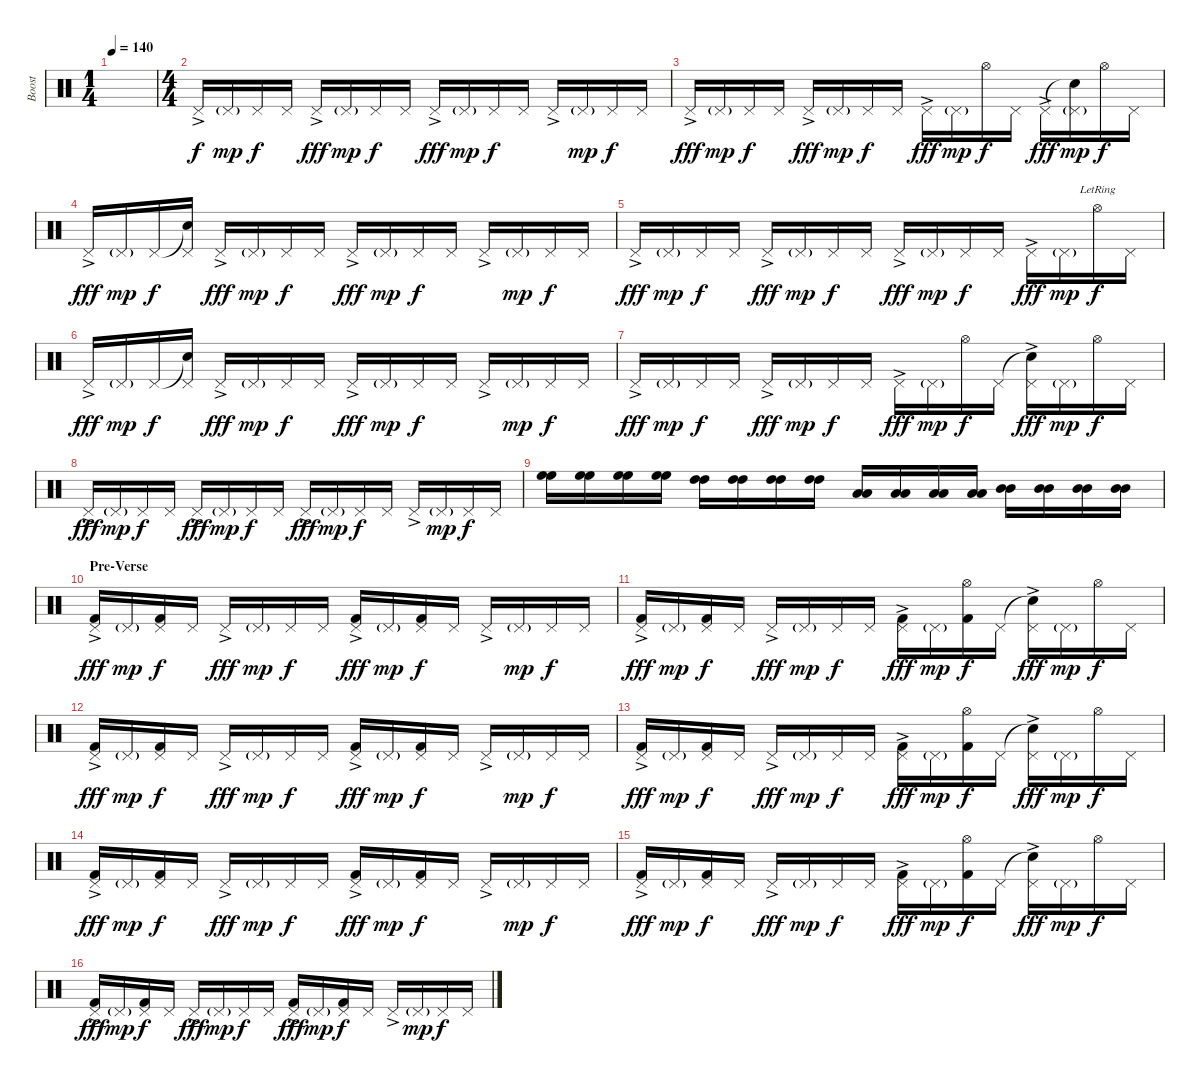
\track ("Boost" "Boost") {instrument percussion}
\staff {score}
\articulation defaults
\ts (1 4)
\tempo 140
\clef neutral
\ks c
|
\ts (4 4)
"Pedal Hi-Hat (hit)"{ac}.16 "Pedal Hi-Hat (hit)"{g}.16{dy mp} "Pedal Hi-Hat (hit)".16{dy f} "Pedal Hi-Hat (hit)".16 "Pedal Hi-Hat (hit)"{ac}.16{dy fff} "Pedal Hi-Hat (hit)"{g}.16{dy mp} "Pedal Hi-Hat (hit)".16{dy f} "Pedal Hi-Hat (hit)".16 "Pedal Hi-Hat (hit)"{ac}.16{dy fff} "Pedal Hi-Hat (hit)"{g}.16{dy mp} "Pedal Hi-Hat (hit)".16{dy f} "Pedal Hi-Hat (hit)".16 "Pedal Hi-Hat (hit)"{ac}.16 "Pedal Hi-Hat (hit)"{g}.16{dy mp} "Pedal Hi-Hat (hit)".16{dy f} "Pedal Hi-Hat (hit)".16 |
"Pedal Hi-Hat (hit)"{ac}.16{dy fff} "Pedal Hi-Hat (hit)"{g}.16{dy mp} "Pedal Hi-Hat (hit)".16{dy f} "Pedal Hi-Hat (hit)".16 "Pedal Hi-Hat (hit)"{ac}.16{dy fff} "Pedal Hi-Hat (hit)"{g}.16{dy mp} "Pedal Hi-Hat (hit)".16{dy f} "Pedal Hi-Hat (hit)".16 "Pedal Hi-Hat (hit)"{ac}.16{dy fff} "Pedal Hi-Hat (hit)"{g}.16{dy mp} "Hi-Hat (open)".16{dy f} "Pedal Hi-Hat (hit)".16 "Pedal Hi-Hat (hit)"{ac}.16{dy fff} ("Snare (hit)"{t} "Pedal Hi-Hat (hit)"{g}).16{dy mp} "Hi-Hat (open)".16{dy f} "Pedal Hi-Hat (hit)".16 |
"Pedal Hi-Hat (hit)"{ac}.16{dy fff} "Pedal Hi-Hat (hit)"{g}.16{dy mp} "Pedal Hi-Hat (hit)".16{dy f} ("Snare (hit)"{t} "Pedal Hi-Hat (hit)").16 "Pedal Hi-Hat (hit)"{ac}.16{dy fff} "Pedal Hi-Hat (hit)"{g}.16{dy mp} "Pedal Hi-Hat (hit)".16{dy f} "Pedal Hi-Hat (hit)".16 "Pedal Hi-Hat (hit)"{ac}.16{dy fff} "Pedal Hi-Hat (hit)"{g}.16{dy mp} "Pedal Hi-Hat (hit)".16{dy f} "Pedal Hi-Hat (hit)".16 "Pedal Hi-Hat (hit)"{ac}.16 "Pedal Hi-Hat (hit)"{g}.16{dy mp} "Pedal Hi-Hat (hit)".16{dy f} "Pedal Hi-Hat (hit)".16 |
"Pedal Hi-Hat (hit)"{ac}.16{dy fff} "Pedal Hi-Hat (hit)"{g}.16{dy mp} "Pedal Hi-Hat (hit)".16{dy f} "Pedal Hi-Hat (hit)".16 "Pedal Hi-Hat (hit)"{ac}.16{dy fff} "Pedal Hi-Hat (hit)"{g}.16{dy mp} "Pedal Hi-Hat (hit)".16{dy f} "Pedal Hi-Hat (hit)".16 "Pedal Hi-Hat (hit)"{ac}.16{dy fff} "Pedal Hi-Hat (hit)"{g}.16{dy mp} "Pedal Hi-Hat (hit)".16{dy f} "Pedal Hi-Hat (hit)".16 "Pedal Hi-Hat (hit)"{ac}.16{dy fff} "Pedal Hi-Hat (hit)"{g}.16{dy mp} "Hi-Hat (open)"{lr}.16{dy f} "Pedal Hi-Hat (hit)".16 |
"Pedal Hi-Hat (hit)"{ac}.16{dy fff} "Pedal Hi-Hat (hit)"{g}.16{dy mp} "Pedal Hi-Hat (hit)".16{dy f} ("Snare (hit)"{t} "Pedal Hi-Hat (hit)").16 "Pedal Hi-Hat (hit)"{ac}.16{dy fff} "Pedal Hi-Hat (hit)"{g}.16{dy mp} "Pedal Hi-Hat (hit)".16{dy f} "Pedal Hi-Hat (hit)".16 "Pedal Hi-Hat (hit)"{ac}.16{dy fff} "Pedal Hi-Hat (hit)"{g}.16{dy mp} "Pedal Hi-Hat (hit)".16{dy f} "Pedal Hi-Hat (hit)".16 "Pedal Hi-Hat (hit)"{ac}.16 "Pedal Hi-Hat (hit)"{g}.16{dy mp} "Pedal Hi-Hat (hit)".16{dy f} "Pedal Hi-Hat (hit)".16 |
"Pedal Hi-Hat (hit)"{ac}.16{dy fff} "Pedal Hi-Hat (hit)"{g}.16{dy mp} "Pedal Hi-Hat (hit)".16{dy f} "Pedal Hi-Hat (hit)".16 "Pedal Hi-Hat (hit)"{ac}.16{dy fff} "Pedal Hi-Hat (hit)"{g}.16{dy mp} "Pedal Hi-Hat (hit)".16{dy f} "Pedal Hi-Hat (hit)".16 "Pedal Hi-Hat (hit)"{ac}.16{dy fff} "Pedal Hi-Hat (hit)"{g}.16{dy mp} "Hi-Hat (open)".16{dy f} "Pedal Hi-Hat (hit)".16 ("Snare (hit)"{t} "Pedal Hi-Hat (hit)"{ac}).16{dy fff} "Pedal Hi-Hat (hit)"{g}.16{dy mp} "Hi-Hat (open)".16{dy f} "Pedal Hi-Hat (hit)".16 |
"Pedal Hi-Hat (hit)"{ac}.16{dy fff} "Pedal Hi-Hat (hit)"{g}.16{dy mp} "Pedal Hi-Hat (hit)".16{dy f} "Pedal Hi-Hat (hit)".16 "Pedal Hi-Hat (hit)"{ac}.16{dy fff} "Pedal Hi-Hat (hit)"{g}.16{dy mp} "Pedal Hi-Hat (hit)".16{dy f} "Pedal Hi-Hat (hit)".16 "Pedal Hi-Hat (hit)"{ac}.16{dy fff} "Pedal Hi-Hat (hit)"{g}.16{dy mp} "Pedal Hi-Hat (hit)".16{dy f} "Pedal Hi-Hat (hit)".16 "Pedal Hi-Hat (hit)"{ac}.16 "Pedal Hi-Hat (hit)"{g}.16{dy mp} "Pedal Hi-Hat (hit)".16{dy f} "Pedal Hi-Hat (hit)".16 |
("High Floor Tom (hit)" "High Floor Tom (hit)").16 ("High Floor Tom (hit)" "High Floor Tom (hit)").16 ("High Floor Tom (hit)" "High Floor Tom (hit)").16 ("High Floor Tom (hit)" "High Floor Tom (hit)").16 ("High Tom (hit)" "High Tom (hit)").16 ("High Tom (hit)" "High Tom (hit)").16 ("High Tom (hit)" "High Tom (hit)").16 ("High Tom (hit)" "High Tom (hit)").16 ("Low Tom (hit)" "Low Tom (hit)").16 ("Low Tom (hit)" "Low Tom (hit)").16 ("Low Tom (hit)" "Low Tom (hit)").16 ("Low Tom (hit)" "Low Tom (hit)").16 ("Mid Tom (hit)" "Mid Tom (hit)").16 ("Mid Tom (hit)" "Mid Tom (hit)").16 ("Mid Tom (hit)" "Mid Tom (hit)").16 ("Mid Tom (hit)" "Mid Tom (hit)").16 |
\section ("" "Pre-Verse")
("Pedal Hi-Hat (hit)"{ac} "Kick (hit) 2").16{dy fff} "Pedal Hi-Hat (hit)"{g}.16{dy mp} ("Pedal Hi-Hat (hit)" "Kick (hit) 2").16{dy f} "Pedal Hi-Hat (hit)".16 "Pedal Hi-Hat (hit)"{ac}.16{dy fff} "Pedal Hi-Hat (hit)"{g}.16{dy mp} "Pedal Hi-Hat (hit)".16{dy f} "Pedal Hi-Hat (hit)".16 ("Pedal Hi-Hat (hit)"{ac} "Kick (hit) 2").16{dy fff} "Pedal Hi-Hat (hit)"{g}.16{dy mp} ("Pedal Hi-Hat (hit)" "Kick (hit) 2").16{dy f} "Pedal Hi-Hat (hit)".16 "Pedal Hi-Hat (hit)"{ac}.16 "Pedal Hi-Hat (hit)"{g}.16{dy mp} "Pedal Hi-Hat (hit)".16{dy f} "Pedal Hi-Hat (hit)".16 |
("Pedal Hi-Hat (hit)"{ac} "Kick (hit) 2").16{dy fff} "Pedal Hi-Hat (hit)"{g}.16{dy mp} ("Pedal Hi-Hat (hit)" "Kick (hit) 2").16{dy f} "Pedal Hi-Hat (hit)".16 "Pedal Hi-Hat (hit)"{ac}.16{dy fff} "Pedal Hi-Hat (hit)"{g}.16{dy mp} "Pedal Hi-Hat (hit)".16{dy f} "Pedal Hi-Hat (hit)".16 ("Pedal Hi-Hat (hit)"{ac} "Kick (hit) 2").16{dy fff} "Pedal Hi-Hat (hit)"{g}.16{dy mp} ("Hi-Hat (open)" "Kick (hit) 2").16{dy f} "Pedal Hi-Hat (hit)".16 ("Snare (hit)"{t} "Pedal Hi-Hat (hit)"{ac}).16{dy fff} "Pedal Hi-Hat (hit)"{g}.16{dy mp} "Hi-Hat (open)".16{dy f} "Pedal Hi-Hat (hit)".16 |
("Pedal Hi-Hat (hit)"{ac} "Kick (hit) 2").16{dy fff} "Pedal Hi-Hat (hit)"{g}.16{dy mp} ("Pedal Hi-Hat (hit)" "Kick (hit) 2").16{dy f} "Pedal Hi-Hat (hit)".16 "Pedal Hi-Hat (hit)"{ac}.16{dy fff} "Pedal Hi-Hat (hit)"{g}.16{dy mp} "Pedal Hi-Hat (hit)".16{dy f} "Pedal Hi-Hat (hit)".16 ("Pedal Hi-Hat (hit)"{ac} "Kick (hit) 2").16{dy fff} "Pedal Hi-Hat (hit)"{g}.16{dy mp} ("Pedal Hi-Hat (hit)" "Kick (hit) 2").16{dy f} "Pedal Hi-Hat (hit)".16 "Pedal Hi-Hat (hit)"{ac}.16 "Pedal Hi-Hat (hit)"{g}.16{dy mp} "Pedal Hi-Hat (hit)".16{dy f} "Pedal Hi-Hat (hit)".16 |
("Pedal Hi-Hat (hit)"{ac} "Kick (hit) 2").16{dy fff} "Pedal Hi-Hat (hit)"{g}.16{dy mp} ("Pedal Hi-Hat (hit)" "Kick (hit) 2").16{dy f} "Pedal Hi-Hat (hit)".16 "Pedal Hi-Hat (hit)"{ac}.16{dy fff} "Pedal Hi-Hat (hit)"{g}.16{dy mp} "Pedal Hi-Hat (hit)".16{dy f} "Pedal Hi-Hat (hit)".16 ("Pedal Hi-Hat (hit)"{ac} "Kick (hit) 2").16{dy fff} "Pedal Hi-Hat (hit)"{g}.16{dy mp} ("Hi-Hat (open)" "Kick (hit) 2").16{dy f} "Pedal Hi-Hat (hit)".16 ("Snare (hit)"{t} "Pedal Hi-Hat (hit)"{ac}).16{dy fff} "Pedal Hi-Hat (hit)"{g}.16{dy mp} "Hi-Hat (open)".16{dy f} "Pedal Hi-Hat (hit)".16 |
("Pedal Hi-Hat (hit)"{ac} "Kick (hit) 2").16{dy fff} "Pedal Hi-Hat (hit)"{g}.16{dy mp} ("Pedal Hi-Hat (hit)" "Kick (hit) 2").16{dy f} "Pedal Hi-Hat (hit)".16 "Pedal Hi-Hat (hit)"{ac}.16{dy fff} "Pedal Hi-Hat (hit)"{g}.16{dy mp} "Pedal Hi-Hat (hit)".16{dy f} "Pedal Hi-Hat (hit)".16 ("Pedal Hi-Hat (hit)"{ac} "Kick (hit) 2").16{dy fff} "Pedal Hi-Hat (hit)"{g}.16{dy mp} ("Pedal Hi-Hat (hit)" "Kick (hit) 2").16{dy f} "Pedal Hi-Hat (hit)".16 "Pedal Hi-Hat (hit)"{ac}.16 "Pedal Hi-Hat (hit)"{g}.16{dy mp} "Pedal Hi-Hat (hit)".16{dy f} "Pedal Hi-Hat (hit)".16 |
("Pedal Hi-Hat (hit)"{ac} "Kick (hit) 2").16{dy fff} "Pedal Hi-Hat (hit)"{g}.16{dy mp} ("Pedal Hi-Hat (hit)" "Kick (hit) 2").16{dy f} "Pedal Hi-Hat (hit)".16 "Pedal Hi-Hat (hit)"{ac}.16{dy fff} "Pedal Hi-Hat (hit)"{g}.16{dy mp} "Pedal Hi-Hat (hit)".16{dy f} "Pedal Hi-Hat (hit)".16 ("Pedal Hi-Hat (hit)"{ac} "Kick (hit) 2").16{dy fff} "Pedal Hi-Hat (hit)"{g}.16{dy mp} ("Hi-Hat (open)" "Kick (hit) 2").16{dy f} "Pedal Hi-Hat (hit)".16 ("Snare (hit)"{t} "Pedal Hi-Hat (hit)"{ac}).16{dy fff} "Pedal Hi-Hat (hit)"{g}.16{dy mp} "Hi-Hat (open)".16{dy f} "Pedal Hi-Hat (hit)".16 |
("Pedal Hi-Hat (hit)"{ac} "Kick (hit) 2").16{dy fff} "Pedal Hi-Hat (hit)"{g}.16{dy mp} ("Pedal Hi-Hat (hit)" "Kick (hit) 2").16{dy f} "Pedal Hi-Hat (hit)".16 "Pedal Hi-Hat (hit)"{ac}.16{dy fff} "Pedal Hi-Hat (hit)"{g}.16{dy mp} "Pedal Hi-Hat (hit)".16{dy f} "Pedal Hi-Hat (hit)".16 ("Pedal Hi-Hat (hit)"{ac} "Kick (hit) 2").16{dy fff} "Pedal Hi-Hat (hit)"{g}.16{dy mp} ("Pedal Hi-Hat (hit)" "Kick (hit) 2").16{dy f} "Pedal Hi-Hat (hit)".16 "Pedal Hi-Hat (hit)"{ac}.16 "Pedal Hi-Hat (hit)"{g}.16{dy mp} "Pedal Hi-Hat (hit)".16{dy f} "Pedal Hi-Hat (hit)".16
